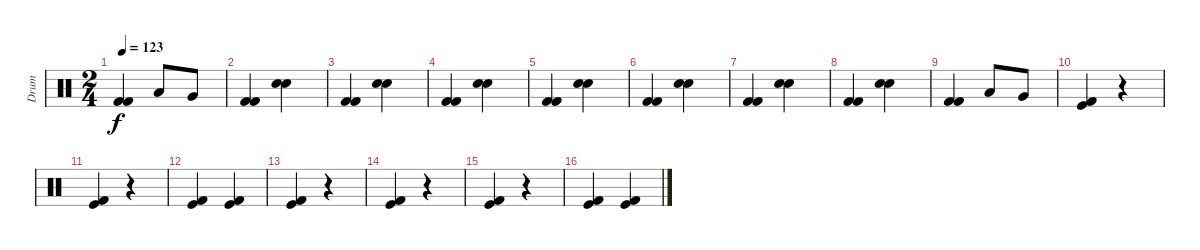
\track ("Drum" "Drum") {instrument percussion}
\staff {score}
\articulation defaults
\ts (2 4)
\tempo 123
\clef neutral
\ks c
("Kick (hit) 2" "Kick (hit) 2").4{dy f} "Low Tom (hit)".8 "Very Low Tom (hit)".8 |
("Kick (hit) 2" "Kick (hit) 2").4 ("Snare (hit) 2" "Snare (hit) 2").4 |
("Kick (hit) 2" "Kick (hit) 2").4 ("Snare (hit) 2" "Snare (hit) 2").4 |
("Kick (hit) 2" "Kick (hit) 2").4 ("Snare (hit) 2" "Snare (hit) 2").4 |
("Kick (hit) 2" "Kick (hit) 2").4 ("Snare (hit) 2" "Snare (hit) 2").4 |
("Kick (hit) 2" "Kick (hit) 2").4 ("Snare (hit) 2" "Snare (hit) 2").4 |
("Kick (hit) 2" "Kick (hit) 2").4 ("Snare (hit) 2" "Snare (hit) 2").4 |
("Kick (hit) 2" "Kick (hit) 2").4 ("Snare (hit) 2" "Snare (hit) 2").4 |
("Kick (hit) 2" "Kick (hit) 2").4 "Low Tom (hit)".8 "Very Low Tom (hit)".8 |
("Kick (hit)" "Kick (hit) 2").4 r.4 |
("Kick (hit)" "Kick (hit) 2").4 r.4 |
("Kick (hit)" "Kick (hit) 2").4 ("Kick (hit)" "Kick (hit) 2").4 |
("Kick (hit)" "Kick (hit) 2").4 r.4 |
("Kick (hit)" "Kick (hit) 2").4 r.4 |
("Kick (hit)" "Kick (hit) 2").4 r.4 |
("Kick (hit)" "Kick (hit) 2").4 ("Kick (hit)" "Kick (hit) 2").4
